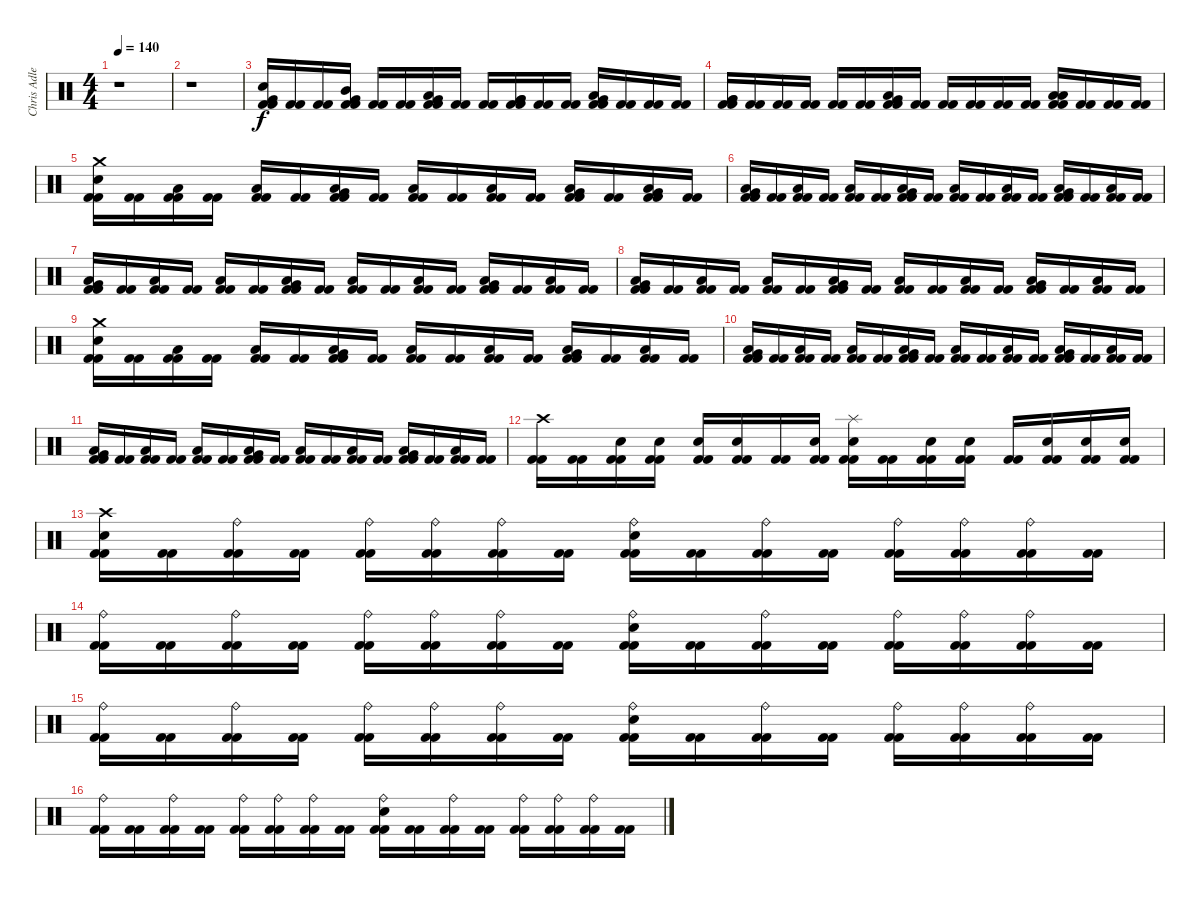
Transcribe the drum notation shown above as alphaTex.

\track ("Chris Adler" "Chris Adle") {instrument percussion}
\staff {score}
\articulation defaults
\ts (4 4)
\tempo 140
\clef neutral
\ks c
r.1{dy f} |
r.1 |
("Very Low Tom (hit)" "Electric Snare (hit)" "Kick (hit) 2" "Kick (hit) 2").16{volume 13} ("Kick (hit) 2" "Kick (hit) 2").16 ("Kick (hit) 2" "Kick (hit) 2").16 ("Mid Tom (hit)" "Very Low Tom (hit)" "Kick (hit) 2" "Kick (hit) 2").16 ("Kick (hit) 2" "Kick (hit) 2").16 ("Kick (hit) 2" "Kick (hit) 2").16 ("Low Tom (hit)" "Very Low Tom (hit)" "Kick (hit) 2" "Kick (hit) 2").16 ("Kick (hit) 2" "Kick (hit) 2").16 ("Kick (hit) 2" "Kick (hit) 2").16 ("Very Low Tom (hit)" "Very Low Tom (hit)" "Kick (hit) 2" "Kick (hit) 2").16 ("Kick (hit) 2" "Kick (hit) 2").16 ("Kick (hit) 2" "Kick (hit) 2").16 ("Low Floor Tom (hit)" "Very Low Tom (hit)" "Kick (hit) 2" "Kick (hit) 2").16 ("Kick (hit) 2" "Kick (hit) 2").16 ("Kick (hit) 2" "Kick (hit) 2").16 ("Kick (hit) 2" "Kick (hit) 2").16 |
("Very Low Tom (hit)" "Very Low Tom (hit)" "Kick (hit) 2" "Kick (hit) 2").16 ("Kick (hit) 2" "Kick (hit) 2").16 ("Kick (hit) 2" "Kick (hit) 2").16 ("Kick (hit) 2" "Kick (hit) 2").16 ("Kick (hit) 2" "Kick (hit) 2").16 ("Kick (hit) 2" "Kick (hit) 2").16 ("Very Low Tom (hit)" "Low Floor Tom (hit)" "Kick (hit) 2" "Kick (hit) 2").16 ("Kick (hit) 2" "Kick (hit) 2").16 ("Kick (hit) 2" "Kick (hit) 2").16 ("Kick (hit) 2" "Kick (hit) 2").16 ("Kick (hit) 2" "Kick (hit) 2").16 ("Kick (hit) 2" "Kick (hit) 2").16 ("Low Floor Tom (hit)" "Low Floor Tom (hit)" "Kick (hit) 2" "Kick (hit) 2").16 ("Kick (hit) 2" "Kick (hit) 2").16 ("Kick (hit) 2" "Kick (hit) 2").16 ("Kick (hit) 2" "Kick (hit) 2").16 |
("Crash medium (hit)" "Electric Snare (hit)" "Kick (hit) 2" "Kick (hit) 2").16 ("Kick (hit) 2" "Kick (hit) 2").16 ("Low Floor Tom (hit)" "Kick (hit) 2" "Kick (hit) 2").16 ("Kick (hit) 2" "Kick (hit) 2").16 ("Low Floor Tom (hit)" "Kick (hit) 2" "Kick (hit) 2").16 ("Kick (hit) 2" "Kick (hit) 2").16 ("Very Low Tom (hit)" "Low Floor Tom (hit)" "Kick (hit) 2" "Kick (hit) 2").16 ("Kick (hit) 2" "Kick (hit) 2").16 ("Low Floor Tom (hit)" "Kick (hit) 2" "Kick (hit) 2").16 ("Kick (hit) 2" "Kick (hit) 2").16 ("Low Floor Tom (hit)" "Kick (hit) 2" "Kick (hit) 2").16 ("Kick (hit) 2" "Kick (hit) 2").16 ("Very Low Tom (hit)" "Low Floor Tom (hit)" "Kick (hit) 2" "Kick (hit) 2").16 ("Kick (hit) 2" "Kick (hit) 2").16 ("Very Low Tom (hit)" "Low Floor Tom (hit)" "Kick (hit) 2" "Kick (hit) 2").16 ("Kick (hit) 2" "Kick (hit) 2").16 |
("Very Low Tom (hit)" "Low Floor Tom (hit)" "Kick (hit) 2" "Kick (hit) 2").16 ("Kick (hit) 2" "Kick (hit) 2").16 ("Low Floor Tom (hit)" "Kick (hit) 2" "Kick (hit) 2").16 ("Kick (hit) 2" "Kick (hit) 2").16 ("Low Floor Tom (hit)" "Kick (hit) 2" "Kick (hit) 2").16 ("Kick (hit) 2" "Kick (hit) 2").16 ("Very Low Tom (hit)" "Low Floor Tom (hit)" "Kick (hit) 2" "Kick (hit) 2").16 ("Kick (hit) 2" "Kick (hit) 2").16 ("Low Floor Tom (hit)" "Kick (hit) 2" "Kick (hit) 2").16 ("Kick (hit) 2" "Kick (hit) 2").16 ("Low Floor Tom (hit)" "Kick (hit) 2" "Kick (hit) 2").16 ("Kick (hit) 2" "Kick (hit) 2").16 ("Very Low Tom (hit)" "Low Floor Tom (hit)" "Kick (hit) 2" "Kick (hit) 2").16 ("Kick (hit) 2" "Kick (hit) 2").16 ("Low Floor Tom (hit)" "Kick (hit) 2" "Kick (hit) 2").16 ("Kick (hit) 2" "Kick (hit) 2").16 |
("Very Low Tom (hit)" "Low Floor Tom (hit)" "Kick (hit) 2" "Kick (hit) 2").16 ("Kick (hit) 2" "Kick (hit) 2").16 ("Low Floor Tom (hit)" "Kick (hit) 2" "Kick (hit) 2").16 ("Kick (hit) 2" "Kick (hit) 2").16 ("Low Floor Tom (hit)" "Kick (hit) 2" "Kick (hit) 2").16 ("Kick (hit) 2" "Kick (hit) 2").16 ("Very Low Tom (hit)" "Low Floor Tom (hit)" "Kick (hit) 2" "Kick (hit) 2").16 ("Kick (hit) 2" "Kick (hit) 2").16 ("Low Floor Tom (hit)" "Kick (hit) 2" "Kick (hit) 2").16 ("Kick (hit) 2" "Kick (hit) 2").16 ("Low Floor Tom (hit)" "Kick (hit) 2" "Kick (hit) 2").16 ("Kick (hit) 2" "Kick (hit) 2").16 ("Very Low Tom (hit)" "Low Floor Tom (hit)" "Kick (hit) 2" "Kick (hit) 2").16 ("Kick (hit) 2" "Kick (hit) 2").16 ("Low Floor Tom (hit)" "Kick (hit) 2" "Kick (hit) 2").16 ("Kick (hit) 2" "Kick (hit) 2").16 |
("Very Low Tom (hit)" "Low Floor Tom (hit)" "Kick (hit) 2" "Kick (hit) 2").16 ("Kick (hit) 2" "Kick (hit) 2").16 ("Low Floor Tom (hit)" "Kick (hit) 2" "Kick (hit) 2").16 ("Kick (hit) 2" "Kick (hit) 2").16 ("Low Floor Tom (hit)" "Kick (hit) 2" "Kick (hit) 2").16 ("Kick (hit) 2" "Kick (hit) 2").16 ("Very Low Tom (hit)" "Low Floor Tom (hit)" "Kick (hit) 2" "Kick (hit) 2").16 ("Kick (hit) 2" "Kick (hit) 2").16 ("Low Floor Tom (hit)" "Kick (hit) 2" "Kick (hit) 2").16 ("Kick (hit) 2" "Kick (hit) 2").16 ("Low Floor Tom (hit)" "Kick (hit) 2" "Kick (hit) 2").16 ("Kick (hit) 2" "Kick (hit) 2").16 ("Very Low Tom (hit)" "Low Floor Tom (hit)" "Kick (hit) 2" "Kick (hit) 2").16 ("Kick (hit) 2" "Kick (hit) 2").16 ("Low Floor Tom (hit)" "Kick (hit) 2" "Kick (hit) 2").16 ("Kick (hit) 2" "Kick (hit) 2").16 |
("Crash medium (hit)" "Electric Snare (hit)" "Kick (hit) 2" "Kick (hit) 2").16 ("Kick (hit) 2" "Kick (hit) 2").16 ("Low Floor Tom (hit)" "Kick (hit) 2" "Kick (hit) 2").16 ("Kick (hit) 2" "Kick (hit) 2").16 ("Low Floor Tom (hit)" "Kick (hit) 2" "Kick (hit) 2").16 ("Kick (hit) 2" "Kick (hit) 2").16 ("Very Low Tom (hit)" "Low Floor Tom (hit)" "Kick (hit) 2" "Kick (hit) 2").16 ("Kick (hit) 2" "Kick (hit) 2").16 ("Low Floor Tom (hit)" "Kick (hit) 2" "Kick (hit) 2").16 ("Kick (hit) 2" "Kick (hit) 2").16 ("Low Floor Tom (hit)" "Kick (hit) 2" "Kick (hit) 2").16 ("Kick (hit) 2" "Kick (hit) 2").16 ("Very Low Tom (hit)" "Low Floor Tom (hit)" "Kick (hit) 2" "Kick (hit) 2").16 ("Kick (hit) 2" "Kick (hit) 2").16 ("Low Floor Tom (hit)" "Kick (hit) 2" "Kick (hit) 2").16 ("Kick (hit) 2" "Kick (hit) 2").16 |
("Very Low Tom (hit)" "Low Floor Tom (hit)" "Kick (hit) 2" "Kick (hit) 2").16 ("Kick (hit) 2" "Kick (hit) 2").16 ("Low Floor Tom (hit)" "Kick (hit) 2" "Kick (hit) 2").16 ("Kick (hit) 2" "Kick (hit) 2").16 ("Low Floor Tom (hit)" "Kick (hit) 2" "Kick (hit) 2").16 ("Kick (hit) 2" "Kick (hit) 2").16 ("Very Low Tom (hit)" "Low Floor Tom (hit)" "Kick (hit) 2" "Kick (hit) 2").16 ("Kick (hit) 2" "Kick (hit) 2").16 ("Low Floor Tom (hit)" "Kick (hit) 2" "Kick (hit) 2").16 ("Kick (hit) 2" "Kick (hit) 2").16 ("Low Floor Tom (hit)" "Kick (hit) 2" "Kick (hit) 2").16 ("Kick (hit) 2" "Kick (hit) 2").16 ("Very Low Tom (hit)" "Low Floor Tom (hit)" "Kick (hit) 2" "Kick (hit) 2").16 ("Kick (hit) 2" "Kick (hit) 2").16 ("Low Floor Tom (hit)" "Kick (hit) 2" "Kick (hit) 2").16 ("Kick (hit) 2" "Kick (hit) 2").16 |
("Very Low Tom (hit)" "Low Floor Tom (hit)" "Kick (hit) 2" "Kick (hit) 2").16 ("Kick (hit) 2" "Kick (hit) 2").16 ("Low Floor Tom (hit)" "Kick (hit) 2" "Kick (hit) 2").16 ("Kick (hit) 2" "Kick (hit) 2").16 ("Low Floor Tom (hit)" "Kick (hit) 2" "Kick (hit) 2").16 ("Kick (hit) 2" "Kick (hit) 2").16 ("Very Low Tom (hit)" "Low Floor Tom (hit)" "Kick (hit) 2" "Kick (hit) 2").16 ("Kick (hit) 2" "Kick (hit) 2").16 ("Low Floor Tom (hit)" "Kick (hit) 2" "Kick (hit) 2").16 ("Kick (hit) 2" "Kick (hit) 2").16 ("Low Floor Tom (hit)" "Kick (hit) 2" "Kick (hit) 2").16 ("Kick (hit) 2" "Kick (hit) 2").16 ("Very Low Tom (hit)" "Low Floor Tom (hit)" "Kick (hit) 2" "Kick (hit) 2").16 ("Kick (hit) 2" "Kick (hit) 2").16 ("Low Floor Tom (hit)" "Kick (hit) 2" "Kick (hit) 2").16 ("Kick (hit) 2" "Kick (hit) 2").16 |
("Crash high (hit)" "Kick (hit) 2" "Kick (hit) 2").16 ("Kick (hit) 2" "Kick (hit) 2").16 ("Electric Snare (hit)" "Kick (hit) 2" "Kick (hit) 2").16 ("Electric Snare (hit)" "Kick (hit) 2" "Kick (hit) 2").16 ("Electric Snare (hit)" "Kick (hit) 2" "Kick (hit) 2").16 ("Electric Snare (hit)" "Kick (hit) 2" "Kick (hit) 2").16 ("Kick (hit) 2" "Kick (hit) 2").16 ("Electric Snare (hit)" "Kick (hit) 2" "Kick (hit) 2").16 ("Splash (hit)" "Electric Snare (hit)" "Kick (hit) 2" "Kick (hit) 2").16 ("Kick (hit) 2" "Kick (hit) 2").16 ("Electric Snare (hit)" "Kick (hit) 2" "Kick (hit) 2").16 ("Electric Snare (hit)" "Kick (hit) 2" "Kick (hit) 2").16 ("Kick (hit) 2" "Kick (hit) 2").16 ("Electric Snare (hit)" "Kick (hit) 2" "Kick (hit) 2").16 ("Electric Snare (hit)" "Kick (hit) 2" "Kick (hit) 2").16 ("Electric Snare (hit)" "Kick (hit) 2" "Kick (hit) 2").16 |
("Crash high (hit)" "Electric Snare (hit)" "Kick (hit) 2" "Kick (hit) 2").16 ("Kick (hit) 2" "Kick (hit) 2").16 ("Ride (bell)" "Kick (hit) 2" "Kick (hit) 2").16 ("Kick (hit) 2" "Kick (hit) 2").16 ("Ride (bell)" "Kick (hit) 2" "Kick (hit) 2").16 ("Ride (bell)" "Kick (hit) 2" "Kick (hit) 2").16 ("Ride (bell)" "Kick (hit) 2" "Kick (hit) 2").16 ("Kick (hit) 2" "Kick (hit) 2").16 ("Ride (bell)" "Electric Snare (hit)" "Kick (hit) 2" "Kick (hit) 2").16 ("Kick (hit) 2" "Kick (hit) 2").16 ("Ride (bell)" "Kick (hit) 2" "Kick (hit) 2").16 ("Kick (hit) 2" "Kick (hit) 2").16 ("Ride (bell)" "Kick (hit) 2" "Kick (hit) 2").16 ("Ride (bell)" "Kick (hit) 2" "Kick (hit) 2").16 ("Ride (bell)" "Kick (hit) 2" "Kick (hit) 2").16 ("Kick (hit) 2" "Kick (hit) 2").16 |
("Ride (bell)" "Kick (hit) 2" "Kick (hit) 2").16 ("Kick (hit) 2" "Kick (hit) 2").16 ("Ride (bell)" "Kick (hit) 2" "Kick (hit) 2").16 ("Kick (hit) 2" "Kick (hit) 2").16 ("Ride (bell)" "Kick (hit) 2" "Kick (hit) 2").16 ("Ride (bell)" "Kick (hit) 2" "Kick (hit) 2").16 ("Ride (bell)" "Kick (hit) 2" "Kick (hit) 2").16 ("Kick (hit) 2" "Kick (hit) 2").16 ("Ride (bell)" "Electric Snare (hit)" "Kick (hit) 2" "Kick (hit) 2").16 ("Kick (hit) 2" "Kick (hit) 2").16 ("Ride (bell)" "Kick (hit) 2" "Kick (hit) 2").16 ("Kick (hit) 2" "Kick (hit) 2").16 ("Ride (bell)" "Kick (hit) 2" "Kick (hit) 2").16 ("Ride (bell)" "Kick (hit) 2" "Kick (hit) 2").16 ("Ride (bell)" "Kick (hit) 2" "Kick (hit) 2").16 ("Kick (hit) 2" "Kick (hit) 2").16 |
("Ride (bell)" "Kick (hit) 2" "Kick (hit) 2").16 ("Kick (hit) 2" "Kick (hit) 2").16 ("Ride (bell)" "Kick (hit) 2" "Kick (hit) 2").16 ("Kick (hit) 2" "Kick (hit) 2").16 ("Ride (bell)" "Kick (hit) 2" "Kick (hit) 2").16 ("Ride (bell)" "Kick (hit) 2" "Kick (hit) 2").16 ("Ride (bell)" "Kick (hit) 2" "Kick (hit) 2").16 ("Kick (hit) 2" "Kick (hit) 2").16 ("Ride (bell)" "Electric Snare (hit)" "Kick (hit) 2" "Kick (hit) 2").16 ("Kick (hit) 2" "Kick (hit) 2").16 ("Ride (bell)" "Kick (hit) 2" "Kick (hit) 2").16 ("Kick (hit) 2" "Kick (hit) 2").16 ("Ride (bell)" "Kick (hit) 2" "Kick (hit) 2").16 ("Ride (bell)" "Kick (hit) 2" "Kick (hit) 2").16 ("Ride (bell)" "Kick (hit) 2" "Kick (hit) 2").16 ("Kick (hit) 2" "Kick (hit) 2").16 |
("Ride (bell)" "Kick (hit) 2" "Kick (hit) 2").16 ("Kick (hit) 2" "Kick (hit) 2").16 ("Ride (bell)" "Kick (hit) 2" "Kick (hit) 2").16 ("Kick (hit) 2" "Kick (hit) 2").16 ("Ride (bell)" "Kick (hit) 2" "Kick (hit) 2").16 ("Ride (bell)" "Kick (hit) 2" "Kick (hit) 2").16 ("Ride (bell)" "Kick (hit) 2" "Kick (hit) 2").16 ("Kick (hit) 2" "Kick (hit) 2").16 ("Ride (bell)" "Electric Snare (hit)" "Kick (hit) 2" "Kick (hit) 2").16 ("Kick (hit) 2" "Kick (hit) 2").16 ("Ride (bell)" "Kick (hit) 2" "Kick (hit) 2").16 ("Kick (hit) 2" "Kick (hit) 2").16 ("Ride (bell)" "Kick (hit) 2" "Kick (hit) 2").16 ("Ride (bell)" "Kick (hit) 2" "Kick (hit) 2").16 ("Ride (bell)" "Kick (hit) 2" "Kick (hit) 2").16 ("Kick (hit) 2" "Kick (hit) 2").16
